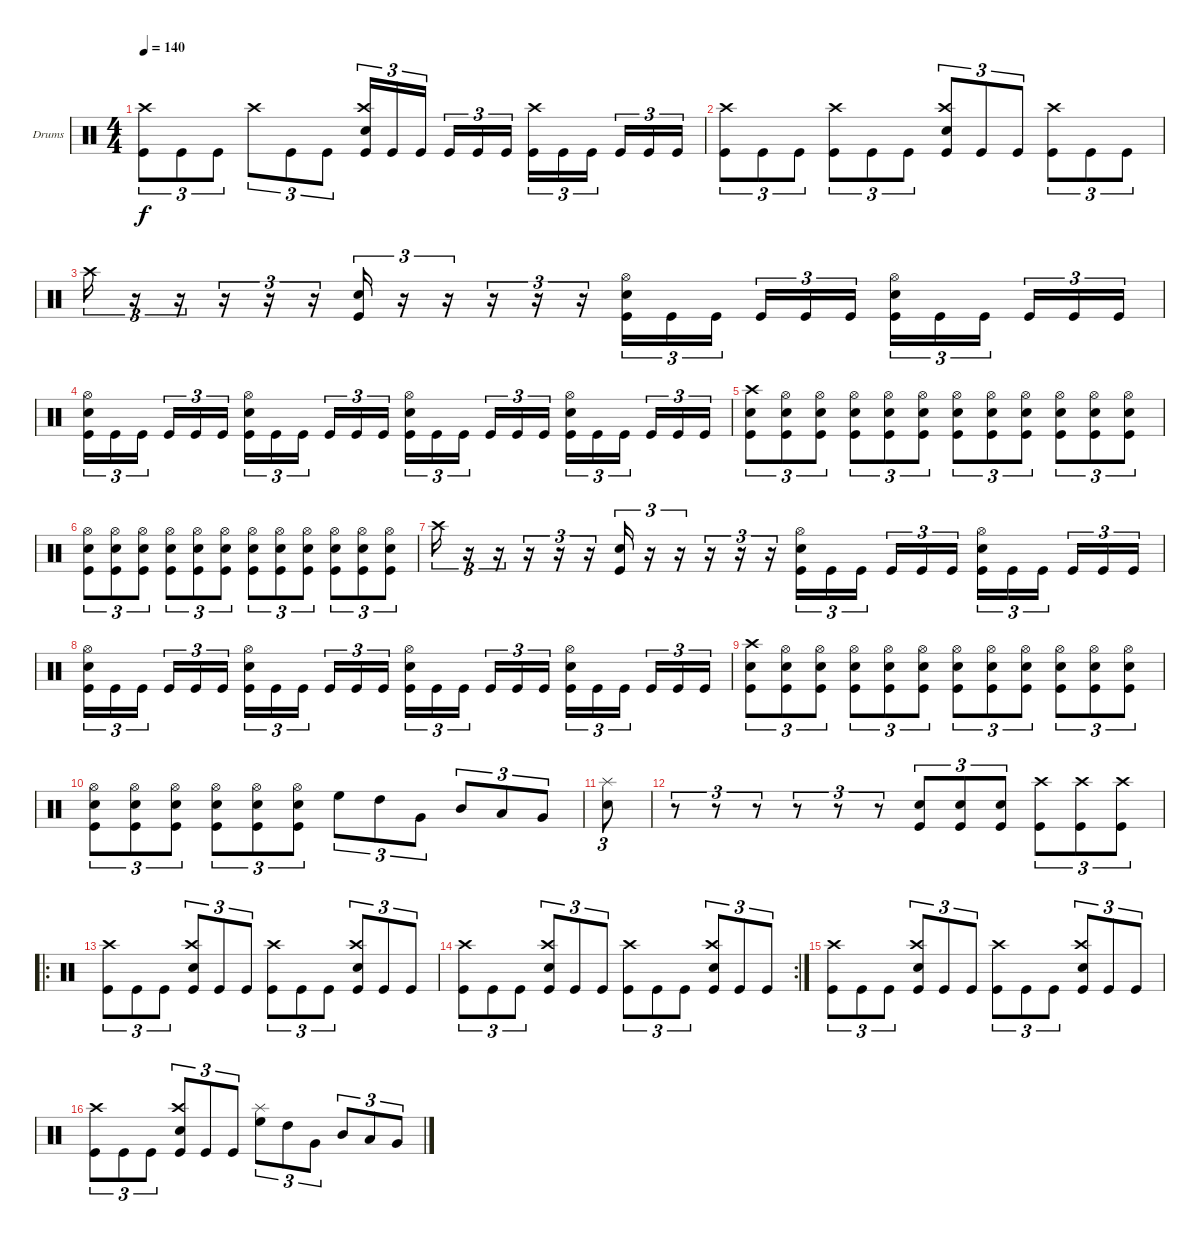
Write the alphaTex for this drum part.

\bracketExtendMode groupsimilarinstruments
\firstSystemTrackNameOrientation horizontal
\otherSystemsTrackNameOrientation horizontal
\track ("Drumkit" "Drums") {instrument percussion}
\staff {score}
\articulation defaults
\ts (4 4)
\tempo 140
\clef neutral
\ks c
("Kick (hit)" "Crash high (hit)").8{tu (3 2) dy f} "Kick (hit)".8{tu (3 2)} "Kick (hit)".8{tu (3 2)} "Crash high (hit)".8{tu (3 2)} "Kick (hit)".8{tu (3 2)} "Kick (hit)".8{tu (3 2)} ("Kick (hit)" "Crash high (hit)" "Snare (hit) 2").16{tu (3 2)} "Kick (hit)".16{tu (3 2)} "Kick (hit)".16{tu (3 2)} "Kick (hit)".16{tu (3 2)} "Kick (hit)".16{tu (3 2)} "Kick (hit)".16{tu (3 2)} ("Kick (hit)" "Crash high (hit)").16{tu (3 2)} "Kick (hit)".16{tu (3 2)} "Kick (hit)".16{tu (3 2)} "Kick (hit)".16{tu (3 2)} "Kick (hit)".16{tu (3 2)} "Kick (hit)".16{tu (3 2)} |
("Kick (hit)" "Crash high (hit)").8{tu (3 2)} "Kick (hit)".8{tu (3 2)} "Kick (hit)".8{tu (3 2)} ("Kick (hit)" "Crash high (hit)").8{tu (3 2)} "Kick (hit)".8{tu (3 2)} "Kick (hit)".8{tu (3 2)} ("Kick (hit)" "Crash high (hit)" "Snare (hit) 2").8{tu (3 2)} "Kick (hit)".8{tu (3 2)} "Kick (hit)".8{tu (3 2)} ("Kick (hit)" "Crash high (hit)").8{tu (3 2)} "Kick (hit)".8{tu (3 2)} "Kick (hit)".8{tu (3 2)} |
"Crash high (hit)".16{tu (3 2)} r.16{tu (3 2)} r.16{tu (3 2)} r.16{tu (3 2)} r.16{tu (3 2)} r.16{tu (3 2)} ("Snare (hit) 2" "Kick (hit)").16{tu (3 2)} r.16{tu (3 2)} r.16{tu (3 2)} r.16{tu (3 2)} r.16{tu (3 2)} r.16{tu (3 2)} ("Kick (hit)" "Snare (hit) 2" "Hi-Hat (open)").16{tu (3 2)} "Kick (hit)".16{tu (3 2)} "Kick (hit)".16{tu (3 2)} "Kick (hit)".16{tu (3 2)} "Kick (hit)".16{tu (3 2)} "Kick (hit)".16{tu (3 2)} ("Kick (hit)" "Snare (hit) 2" "Hi-Hat (open)").16{tu (3 2)} "Kick (hit)".16{tu (3 2)} "Kick (hit)".16{tu (3 2)} "Kick (hit)".16{tu (3 2)} "Kick (hit)".16{tu (3 2)} "Kick (hit)".16{tu (3 2)} |
("Kick (hit)" "Snare (hit) 2" "Hi-Hat (open)").16{tu (3 2)} "Kick (hit)".16{tu (3 2)} "Kick (hit)".16{tu (3 2)} "Kick (hit)".16{tu (3 2)} "Kick (hit)".16{tu (3 2)} "Kick (hit)".16{tu (3 2)} ("Kick (hit)" "Snare (hit) 2" "Hi-Hat (open)").16{tu (3 2)} "Kick (hit)".16{tu (3 2)} "Kick (hit)".16{tu (3 2)} "Kick (hit)".16{tu (3 2)} "Kick (hit)".16{tu (3 2)} "Kick (hit)".16{tu (3 2)} ("Kick (hit)" "Snare (hit) 2" "Hi-Hat (open)").16{tu (3 2)} "Kick (hit)".16{tu (3 2)} "Kick (hit)".16{tu (3 2)} "Kick (hit)".16{tu (3 2)} "Kick (hit)".16{tu (3 2)} "Kick (hit)".16{tu (3 2)} ("Kick (hit)" "Hi-Hat (open)" "Snare (hit) 2").16{tu (3 2)} "Kick (hit)".16{tu (3 2)} "Kick (hit)".16{tu (3 2)} "Kick (hit)".16{tu (3 2)} "Kick (hit)".16{tu (3 2)} "Kick (hit)".16{tu (3 2)} |
("Kick (hit)" "Snare (hit) 2" "Crash high (hit)").8{tu (3 2)} ("Kick (hit)" "Snare (hit) 2" "Hi-Hat (open)").8{tu (3 2)} ("Kick (hit)" "Snare (hit) 2" "Hi-Hat (open)").8{tu (3 2)} ("Kick (hit)" "Snare (hit) 2" "Hi-Hat (open)").8{tu (3 2)} ("Kick (hit)" "Snare (hit) 2" "Hi-Hat (open)").8{tu (3 2)} ("Kick (hit)" "Snare (hit) 2" "Hi-Hat (open)").8{tu (3 2)} ("Kick (hit)" "Snare (hit) 2" "Hi-Hat (open)").8{tu (3 2)} ("Kick (hit)" "Snare (hit) 2" "Hi-Hat (open)").8{tu (3 2)} ("Kick (hit)" "Snare (hit) 2" "Hi-Hat (open)").8{tu (3 2)} ("Kick (hit)" "Snare (hit) 2" "Hi-Hat (open)").8{tu (3 2)} ("Kick (hit)" "Snare (hit) 2" "Hi-Hat (open)").8{tu (3 2)} ("Kick (hit)" "Snare (hit) 2" "Hi-Hat (open)").8{tu (3 2)} |
("Kick (hit)" "Snare (hit) 2" "Hi-Hat (open)").8{tu (3 2)} ("Kick (hit)" "Snare (hit) 2" "Hi-Hat (open)").8{tu (3 2)} ("Kick (hit)" "Snare (hit) 2" "Hi-Hat (open)").8{tu (3 2)} ("Kick (hit)" "Snare (hit) 2" "Hi-Hat (open)").8{tu (3 2)} ("Kick (hit)" "Snare (hit) 2" "Hi-Hat (open)").8{tu (3 2)} ("Kick (hit)" "Snare (hit) 2" "Hi-Hat (open)").8{tu (3 2)} ("Kick (hit)" "Snare (hit) 2" "Hi-Hat (open)").8{tu (3 2)} ("Kick (hit)" "Snare (hit) 2" "Hi-Hat (open)").8{tu (3 2)} ("Kick (hit)" "Snare (hit) 2" "Hi-Hat (open)").8{tu (3 2)} ("Kick (hit)" "Snare (hit) 2" "Hi-Hat (open)").8{tu (3 2)} ("Kick (hit)" "Snare (hit) 2" "Hi-Hat (open)").8{tu (3 2)} ("Kick (hit)" "Snare (hit) 2" "Hi-Hat (open)").8{tu (3 2)} |
"Crash high (hit)".16{tu (3 2)} r.16{tu (3 2)} r.16{tu (3 2)} r.16{tu (3 2)} r.16{tu (3 2)} r.16{tu (3 2)} ("Snare (hit) 2" "Kick (hit)").16{tu (3 2)} r.16{tu (3 2)} r.16{tu (3 2)} r.16{tu (3 2)} r.16{tu (3 2)} r.16{tu (3 2)} ("Kick (hit)" "Snare (hit) 2" "Hi-Hat (open)").16{tu (3 2)} "Kick (hit)".16{tu (3 2)} "Kick (hit)".16{tu (3 2)} "Kick (hit)".16{tu (3 2)} "Kick (hit)".16{tu (3 2)} "Kick (hit)".16{tu (3 2)} ("Kick (hit)" "Snare (hit) 2" "Hi-Hat (open)").16{tu (3 2)} "Kick (hit)".16{tu (3 2)} "Kick (hit)".16{tu (3 2)} "Kick (hit)".16{tu (3 2)} "Kick (hit)".16{tu (3 2)} "Kick (hit)".16{tu (3 2)} |
("Kick (hit)" "Snare (hit) 2" "Hi-Hat (open)").16{tu (3 2)} "Kick (hit)".16{tu (3 2)} "Kick (hit)".16{tu (3 2)} "Kick (hit)".16{tu (3 2)} "Kick (hit)".16{tu (3 2)} "Kick (hit)".16{tu (3 2)} ("Kick (hit)" "Snare (hit) 2" "Hi-Hat (open)").16{tu (3 2)} "Kick (hit)".16{tu (3 2)} "Kick (hit)".16{tu (3 2)} "Kick (hit)".16{tu (3 2)} "Kick (hit)".16{tu (3 2)} "Kick (hit)".16{tu (3 2)} ("Kick (hit)" "Snare (hit) 2" "Hi-Hat (open)").16{tu (3 2)} "Kick (hit)".16{tu (3 2)} "Kick (hit)".16{tu (3 2)} "Kick (hit)".16{tu (3 2)} "Kick (hit)".16{tu (3 2)} "Kick (hit)".16{tu (3 2)} ("Kick (hit)" "Hi-Hat (open)" "Snare (hit) 2").16{tu (3 2)} "Kick (hit)".16{tu (3 2)} "Kick (hit)".16{tu (3 2)} "Kick (hit)".16{tu (3 2)} "Kick (hit)".16{tu (3 2)} "Kick (hit)".16{tu (3 2)} |
("Kick (hit)" "Snare (hit) 2" "Crash high (hit)").8{tu (3 2)} ("Kick (hit)" "Snare (hit) 2" "Hi-Hat (open)").8{tu (3 2)} ("Kick (hit)" "Snare (hit) 2" "Hi-Hat (open)").8{tu (3 2)} ("Kick (hit)" "Snare (hit) 2" "Hi-Hat (open)").8{tu (3 2)} ("Kick (hit)" "Snare (hit) 2" "Hi-Hat (open)").8{tu (3 2)} ("Kick (hit)" "Snare (hit) 2" "Hi-Hat (open)").8{tu (3 2)} ("Kick (hit)" "Snare (hit) 2" "Hi-Hat (open)").8{tu (3 2)} ("Kick (hit)" "Snare (hit) 2" "Hi-Hat (open)").8{tu (3 2)} ("Kick (hit)" "Snare (hit) 2" "Hi-Hat (open)").8{tu (3 2)} ("Kick (hit)" "Snare (hit) 2" "Hi-Hat (open)").8{tu (3 2)} ("Kick (hit)" "Snare (hit) 2" "Hi-Hat (open)").8{tu (3 2)} ("Kick (hit)" "Snare (hit) 2" "Hi-Hat (open)").8{tu (3 2)} |
("Kick (hit)" "Snare (hit) 2" "Hi-Hat (open)").8{tu (3 2)} ("Kick (hit)" "Snare (hit) 2" "Hi-Hat (open)").8{tu (3 2)} ("Kick (hit)" "Snare (hit) 2" "Hi-Hat (open)").8{tu (3 2)} ("Kick (hit)" "Snare (hit) 2" "Hi-Hat (open)").8{tu (3 2)} ("Kick (hit)" "Snare (hit) 2" "Hi-Hat (open)").8{tu (3 2)} ("Kick (hit)" "Snare (hit) 2" "Hi-Hat (open)").8{tu (3 2)} "High Floor Tom (hit)".8{tu (3 2)} "High Tom (hit)".8{tu (3 2)} "Very Low Tom (hit)".8{tu (3 2)} "Mid Tom (hit)".8{tu (3 2)} "Low Tom (hit)".8{tu (3 2)} "Very Low Tom (hit)".8{tu (3 2)} |
("Snare (hit) 2" "Splash (hit)").8{tu (3 2)} |
r.8{tu (3 2)} r.8{tu (3 2)} r.8{tu (3 2)} r.8{tu (3 2)} r.8{tu (3 2)} r.8{tu (3 2)} ("Kick (hit)" "Snare (hit) 2").8{tu (3 2)} ("Kick (hit)" "Snare (hit) 2").8{tu (3 2)} ("Kick (hit)" "Snare (hit) 2").8{tu (3 2)} ("Kick (hit)" "Crash high (hit)").8{tu (3 2)} ("Kick (hit)" "Crash high (hit)").8{tu (3 2)} ("Kick (hit)" "Crash high (hit)").8{tu (3 2)} |
\ro
("Kick (hit)" "Crash high (hit)").8{tu (3 2)} "Kick (hit)".8{tu (3 2)} "Kick (hit)".8{tu (3 2)} ("Kick (hit)" "Crash high (hit)" "Snare (hit) 2").8{tu (3 2)} "Kick (hit)".8{tu (3 2)} "Kick (hit)".8{tu (3 2)} ("Kick (hit)" "Crash high (hit)").8{tu (3 2)} "Kick (hit)".8{tu (3 2)} "Kick (hit)".8{tu (3 2)} ("Kick (hit)" "Crash high (hit)" "Snare (hit) 2").8{tu (3 2)} "Kick (hit)".8{tu (3 2)} "Kick (hit)".8{tu (3 2)} |
\rc 2
("Kick (hit)" "Crash high (hit)").8{tu (3 2)} "Kick (hit)".8{tu (3 2)} "Kick (hit)".8{tu (3 2)} ("Kick (hit)" "Crash high (hit)" "Snare (hit) 2").8{tu (3 2)} "Kick (hit)".8{tu (3 2)} "Kick (hit)".8{tu (3 2)} ("Kick (hit)" "Crash high (hit)").8{tu (3 2)} "Kick (hit)".8{tu (3 2)} "Kick (hit)".8{tu (3 2)} ("Kick (hit)" "Crash high (hit)" "Snare (hit) 2").8{tu (3 2)} "Kick (hit)".8{tu (3 2)} "Kick (hit)".8{tu (3 2)} |
("Kick (hit)" "Crash high (hit)").8{tu (3 2)} "Kick (hit)".8{tu (3 2)} "Kick (hit)".8{tu (3 2)} ("Kick (hit)" "Crash high (hit)" "Snare (hit) 2").8{tu (3 2)} "Kick (hit)".8{tu (3 2)} "Kick (hit)".8{tu (3 2)} ("Kick (hit)" "Crash high (hit)").8{tu (3 2)} "Kick (hit)".8{tu (3 2)} "Kick (hit)".8{tu (3 2)} ("Kick (hit)" "Crash high (hit)" "Snare (hit) 2").8{tu (3 2)} "Kick (hit)".8{tu (3 2)} "Kick (hit)".8{tu (3 2)} |
("Kick (hit)" "Crash high (hit)").8{tu (3 2)} "Kick (hit)".8{tu (3 2)} "Kick (hit)".8{tu (3 2)} ("Kick (hit)" "Crash high (hit)" "Snare (hit) 2").8{tu (3 2)} "Kick (hit)".8{tu (3 2)} "Kick (hit)".8{tu (3 2)} ("High Floor Tom (hit)" "Splash (hit)").8{tu (3 2)} "High Tom (hit)".8{tu (3 2)} "Very Low Tom (hit)".8{tu (3 2)} "Mid Tom (hit)".8{tu (3 2)} "Low Tom (hit)".8{tu (3 2)} "Very Low Tom (hit)".8{tu (3 2)}
